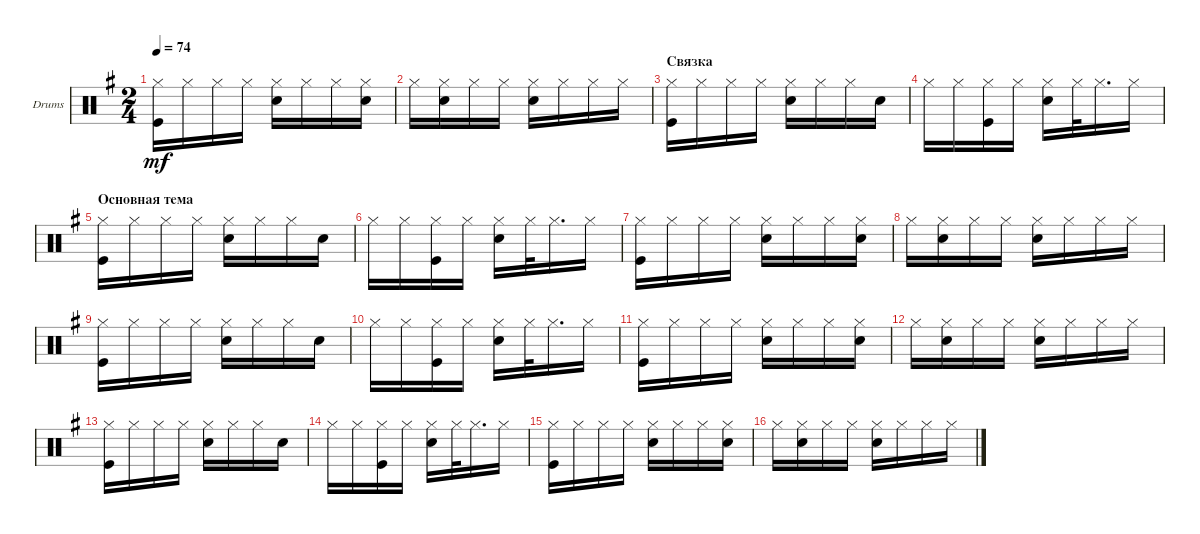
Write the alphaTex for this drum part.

\defaultSystemsLayout 4
\bracketExtendMode groupsimilarinstruments
\firstSystemTrackNameOrientation horizontal
\otherSystemsTrackNameOrientation horizontal
\track ("Drumkit" "Drums") {instrument percussion}
\staff {score}
\articulation defaults
\ts (2 4)
\tempo 74
\clef neutral
\ks eminor
("Hi-Hat (closed)" "Kick (hit)").16{dy mf} "Hi-Hat (closed)".16 "Hi-Hat (closed)".16 "Hi-Hat (closed)".16 ("Hi-Hat (closed)" "Snare (hit) 2").16 "Hi-Hat (closed)".16 "Hi-Hat (closed)".16 ("Hi-Hat (closed)" "Snare (hit) 2").16 |
"Hi-Hat (closed)".16 ("Hi-Hat (closed)" "Snare (hit) 2").16 "Hi-Hat (closed)".16 "Hi-Hat (closed)".16 ("Hi-Hat (closed)" "Snare (hit) 2").16 "Hi-Hat (closed)".16 "Hi-Hat (closed)".16 "Hi-Hat (closed)".16 |
\section ("" "Связка")
("Hi-Hat (closed)" "Kick (hit)").16 "Hi-Hat (closed)".16 "Hi-Hat (closed)".16 "Hi-Hat (closed)".16 ("Hi-Hat (closed)" "Snare (hit) 2").16 "Hi-Hat (closed)".16 "Hi-Hat (closed)".16 "Snare (hit) 2".16 |
"Hi-Hat (closed)".16 "Hi-Hat (closed)".16 ("Hi-Hat (closed)" "Kick (hit)").16 "Hi-Hat (closed)".16 ("Hi-Hat (closed)" "Snare (hit) 2").16 "Hi-Hat (closed)".32 "Hi-Hat (closed)".16{d} "Hi-Hat (closed)".16 |
\section ("" "Основная тема")
("Hi-Hat (closed)" "Kick (hit)").16 "Hi-Hat (closed)".16 "Hi-Hat (closed)".16 "Hi-Hat (closed)".16 ("Hi-Hat (closed)" "Snare (hit) 2").16 "Hi-Hat (closed)".16 "Hi-Hat (closed)".16 "Snare (hit) 2".16 |
"Hi-Hat (closed)".16 "Hi-Hat (closed)".16 ("Hi-Hat (closed)" "Kick (hit)").16 "Hi-Hat (closed)".16 ("Hi-Hat (closed)" "Snare (hit) 2").16 "Hi-Hat (closed)".32 "Hi-Hat (closed)".16{d} "Hi-Hat (closed)".16 |
("Hi-Hat (closed)" "Kick (hit)").16 "Hi-Hat (closed)".16 "Hi-Hat (closed)".16 "Hi-Hat (closed)".16 ("Hi-Hat (closed)" "Snare (hit) 2").16 "Hi-Hat (closed)".16 "Hi-Hat (closed)".16 ("Hi-Hat (closed)" "Snare (hit) 2").16 |
"Hi-Hat (closed)".16 ("Hi-Hat (closed)" "Snare (hit) 2").16 "Hi-Hat (closed)".16 "Hi-Hat (closed)".16 ("Hi-Hat (closed)" "Snare (hit) 2").16 "Hi-Hat (closed)".16 "Hi-Hat (closed)".16 "Hi-Hat (closed)".16 |
("Hi-Hat (closed)" "Kick (hit)").16 "Hi-Hat (closed)".16 "Hi-Hat (closed)".16 "Hi-Hat (closed)".16 ("Hi-Hat (closed)" "Snare (hit) 2").16 "Hi-Hat (closed)".16 "Hi-Hat (closed)".16 "Snare (hit) 2".16 |
"Hi-Hat (closed)".16 "Hi-Hat (closed)".16 ("Hi-Hat (closed)" "Kick (hit)").16 "Hi-Hat (closed)".16 ("Hi-Hat (closed)" "Snare (hit) 2").16 "Hi-Hat (closed)".32 "Hi-Hat (closed)".16{d} "Hi-Hat (closed)".16 |
("Hi-Hat (closed)" "Kick (hit)").16 "Hi-Hat (closed)".16 "Hi-Hat (closed)".16 "Hi-Hat (closed)".16 ("Hi-Hat (closed)" "Snare (hit) 2").16 "Hi-Hat (closed)".16 "Hi-Hat (closed)".16 ("Hi-Hat (closed)" "Snare (hit) 2").16 |
"Hi-Hat (closed)".16 ("Hi-Hat (closed)" "Snare (hit) 2").16 "Hi-Hat (closed)".16 "Hi-Hat (closed)".16 ("Hi-Hat (closed)" "Snare (hit) 2").16 "Hi-Hat (closed)".16 "Hi-Hat (closed)".16 "Hi-Hat (closed)".16 |
("Hi-Hat (closed)" "Kick (hit)").16 "Hi-Hat (closed)".16 "Hi-Hat (closed)".16 "Hi-Hat (closed)".16 ("Hi-Hat (closed)" "Snare (hit) 2").16 "Hi-Hat (closed)".16 "Hi-Hat (closed)".16 "Snare (hit) 2".16 |
"Hi-Hat (closed)".16 "Hi-Hat (closed)".16 ("Hi-Hat (closed)" "Kick (hit)").16 "Hi-Hat (closed)".16 ("Hi-Hat (closed)" "Snare (hit) 2").16 "Hi-Hat (closed)".32 "Hi-Hat (closed)".16{d} "Hi-Hat (closed)".16 |
("Hi-Hat (closed)" "Kick (hit)").16 "Hi-Hat (closed)".16 "Hi-Hat (closed)".16 "Hi-Hat (closed)".16 ("Hi-Hat (closed)" "Snare (hit) 2").16 "Hi-Hat (closed)".16 "Hi-Hat (closed)".16 ("Hi-Hat (closed)" "Snare (hit) 2").16 |
"Hi-Hat (closed)".16 ("Hi-Hat (closed)" "Snare (hit) 2").16 "Hi-Hat (closed)".16 "Hi-Hat (closed)".16 ("Hi-Hat (closed)" "Snare (hit) 2").16 "Hi-Hat (closed)".16 "Hi-Hat (closed)".16 "Hi-Hat (closed)".16
